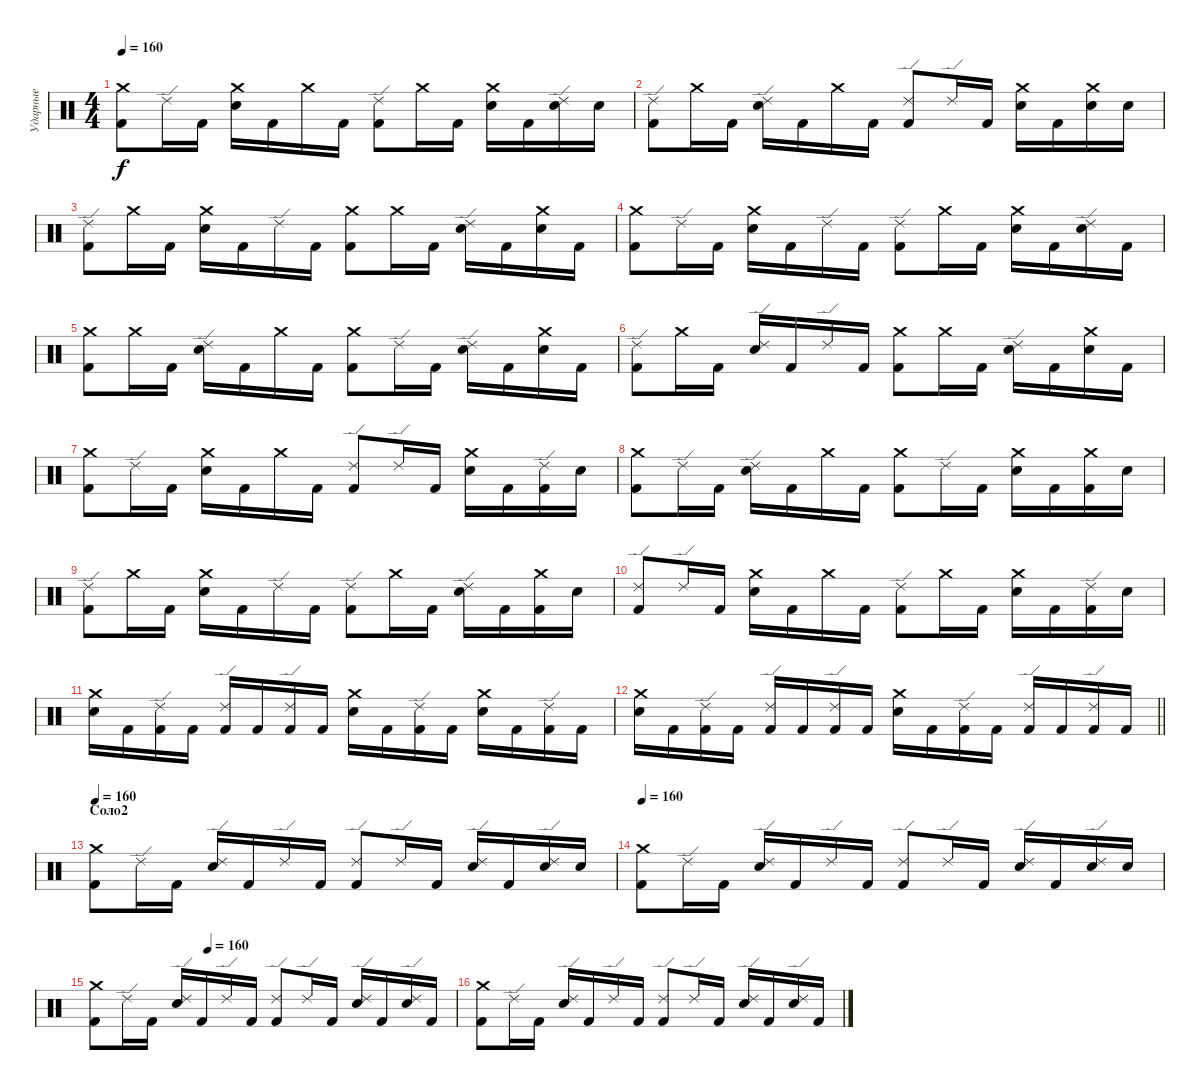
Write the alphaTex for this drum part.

\track ("Ударные" "Ударные") {instrument percussion}
\staff {score}
\articulation defaults
\ts (4 4)
\tempo 160
\clef neutral
\ks c
("Crash medium (hit)" "Kick (hit) 2").8{dy f} "Ride (edge) 2".16 "Kick (hit) 2".16 ("Crash medium (hit)" "Electric Snare (hit)").16 "Kick (hit) 2".16 "Crash medium (hit)".16 "Kick (hit) 2".16 ("Ride (edge) 2" "Kick (hit) 2").8 "Crash medium (hit)".16 "Kick (hit) 2".16 ("Crash medium (hit)" "Electric Snare (hit)").16 "Kick (hit) 2".16 ("Ride (edge) 2" "Electric Snare (hit)").16 "Electric Snare (hit)".16 |
("Ride (edge) 2" "Kick (hit) 2").8 "Crash medium (hit)".16 "Kick (hit) 2".16 ("Ride (edge) 2" "Electric Snare (hit)").16 "Kick (hit) 2".16 "Crash medium (hit)".16 "Kick (hit) 2".16 ("Ride (edge) 2" "Kick (hit) 2").8 "Ride (edge) 2".16 "Kick (hit) 2".16 ("Crash medium (hit)" "Electric Snare (hit)").16 "Kick (hit) 2".16 ("Crash medium (hit)" "Electric Snare (hit)").16 "Electric Snare (hit)".16 |
("Ride (edge) 2" "Kick (hit) 2").8 "Crash medium (hit)".16 "Kick (hit) 2".16 ("Crash medium (hit)" "Electric Snare (hit)").16 "Kick (hit) 2".16 "Ride (edge) 2".16 "Kick (hit) 2".16 ("Crash medium (hit)" "Kick (hit) 2").8 "Crash medium (hit)".16 "Kick (hit) 2".16 ("Ride (edge) 2" "Electric Snare (hit)").16 "Kick (hit) 2".16 ("Crash medium (hit)" "Electric Snare (hit)").16 "Kick (hit) 2".16 |
("Crash medium (hit)" "Kick (hit) 2").8 "Ride (edge) 2".16 "Kick (hit) 2".16 ("Crash medium (hit)" "Electric Snare (hit)").16 "Kick (hit) 2".16 "Ride (edge) 2".16 "Kick (hit) 2".16 ("Ride (edge) 2" "Kick (hit) 2").8 "Crash medium (hit)".16 "Kick (hit) 2".16 ("Crash medium (hit)" "Electric Snare (hit)").16 "Kick (hit) 2".16 ("Ride (edge) 2" "Electric Snare (hit)").16 "Kick (hit) 2".16 |
("Crash medium (hit)" "Kick (hit) 2").8 "Crash medium (hit)".16 "Kick (hit) 2".16 ("Ride (edge) 2" "Electric Snare (hit)").16 "Kick (hit) 2".16 "Crash medium (hit)".16 "Kick (hit) 2".16 ("Crash medium (hit)" "Kick (hit) 2").8 "Ride (edge) 2".16 "Kick (hit) 2".16 ("Ride (edge) 2" "Electric Snare (hit)").16 "Kick (hit) 2".16 ("Crash medium (hit)" "Electric Snare (hit)").16 "Kick (hit) 2".16 |
("Ride (edge) 2" "Kick (hit) 2").8 "Crash medium (hit)".16 "Kick (hit) 2".16 ("Ride (edge) 2" "Electric Snare (hit)").16 "Kick (hit) 2".16 "Ride (edge) 2".16 "Kick (hit) 2".16 ("Crash medium (hit)" "Kick (hit) 2").8 "Crash medium (hit)".16 "Kick (hit) 2".16 ("Ride (edge) 2" "Electric Snare (hit)").16 "Kick (hit) 2".16 ("Crash medium (hit)" "Electric Snare (hit)").16 "Kick (hit) 2".16 |
("Crash medium (hit)" "Kick (hit) 2").8 "Ride (edge) 2".16 "Kick (hit) 2".16 ("Crash medium (hit)" "Electric Snare (hit)").16 "Kick (hit) 2".16 "Crash medium (hit)".16 "Kick (hit) 2".16 ("Ride (edge) 2" "Kick (hit) 2").8 "Ride (edge) 2".16 "Kick (hit) 2".16 ("Crash medium (hit)" "Electric Snare (hit)").16 "Kick (hit) 2".16 ("Ride (edge) 2" "Kick (hit) 2").16 "Electric Snare (hit)".16 |
("Crash medium (hit)" "Kick (hit) 2").8 "Ride (edge) 2".16 "Kick (hit) 2".16 ("Ride (edge) 2" "Electric Snare (hit)").16 "Kick (hit) 2".16 "Crash medium (hit)".16 "Kick (hit) 2".16 ("Crash medium (hit)" "Kick (hit) 2").8 "Ride (edge) 2".16 "Kick (hit) 2".16 ("Crash medium (hit)" "Electric Snare (hit)").16 "Kick (hit) 2".16 ("Crash medium (hit)" "Kick (hit) 2").16 "Electric Snare (hit)".16 |
("Ride (edge) 2" "Kick (hit) 2").8 "Crash medium (hit)".16 "Kick (hit) 2".16 ("Crash medium (hit)" "Electric Snare (hit)").16 "Kick (hit) 2".16 "Ride (edge) 2".16 "Kick (hit) 2".16 ("Ride (edge) 2" "Kick (hit) 2").8 "Crash medium (hit)".16 "Kick (hit) 2".16 ("Ride (edge) 2" "Electric Snare (hit)").16 "Kick (hit) 2".16 ("Crash medium (hit)" "Kick (hit) 2").16 "Electric Snare (hit)".16 |
("Ride (edge) 2" "Kick (hit) 2").8 "Ride (edge) 2".16 "Kick (hit) 2".16 ("Crash medium (hit)" "Electric Snare (hit)").16 "Kick (hit) 2".16 "Crash medium (hit)".16 "Kick (hit) 2".16 ("Ride (edge) 2" "Kick (hit) 2").8 "Crash medium (hit)".16 "Kick (hit) 2".16 ("Crash medium (hit)" "Electric Snare (hit)").16 "Kick (hit) 2".16 ("Ride (edge) 2" "Kick (hit) 2").16 "Electric Snare (hit)".16 |
("Crash medium (hit)" "Electric Snare (hit)").16 "Kick (hit) 2".16 ("Ride (edge) 2" "Kick (hit) 2").16 "Kick (hit) 2".16 ("Ride (edge) 2" "Kick (hit) 2").16 "Kick (hit) 2".16 ("Ride (edge) 2" "Kick (hit) 2").16 "Kick (hit) 2".16 ("Crash medium (hit)" "Electric Snare (hit)").16 "Kick (hit) 2".16 ("Ride (edge) 2" "Kick (hit) 2").16 "Kick (hit) 2".16 ("Crash medium (hit)" "Electric Snare (hit)").16 "Kick (hit) 2".16 ("Ride (edge) 2" "Kick (hit) 2").16 "Kick (hit) 2".16 |
\barLineRight lightlight
("Crash medium (hit)" "Electric Snare (hit)").16 "Kick (hit) 2".16 ("Ride (edge) 2" "Kick (hit) 2").16 "Kick (hit) 2".16 ("Ride (edge) 2" "Kick (hit) 2").16 "Kick (hit) 2".16 ("Ride (edge) 2" "Kick (hit) 2").16 "Kick (hit) 2".16 ("Crash medium (hit)" "Electric Snare (hit)").16 "Kick (hit) 2".16 ("Ride (edge) 2" "Kick (hit) 2").16 "Kick (hit) 2".16 ("Ride (edge) 2" "Kick (hit) 2").16 "Kick (hit) 2".16 ("Ride (edge) 2" "Kick (hit) 2").16 "Kick (hit) 2".16 |
\section ("" "Соло2")
\tempo 160
("Crash medium (hit)" "Kick (hit) 2").8 "Ride (edge) 2".16 "Kick (hit) 2".16 ("Ride (edge) 2" "Electric Snare (hit)").16 "Kick (hit) 2".16 "Ride (edge) 2".16 "Kick (hit) 2".16 ("Ride (edge) 2" "Kick (hit) 2").8 "Ride (edge) 2".16 "Kick (hit) 2".16 ("Ride (edge) 2" "Electric Snare (hit)").16 "Kick (hit) 2".16 ("Ride (edge) 2" "Electric Snare (hit)").16 "Electric Snare (hit)".16 |
\tempo 160
("Crash medium (hit)" "Kick (hit) 2").8 "Ride (edge) 2".16 "Kick (hit) 2".16 ("Ride (edge) 2" "Electric Snare (hit)").16 "Kick (hit) 2".16 "Ride (edge) 2".16 "Kick (hit) 2".16 ("Ride (edge) 2" "Kick (hit) 2").8 "Ride (edge) 2".16 "Kick (hit) 2".16 ("Ride (edge) 2" "Electric Snare (hit)").16 "Kick (hit) 2".16 ("Ride (edge) 2" "Electric Snare (hit)").16 "Electric Snare (hit)".16 |
\tempo (160 0.3125)
("Crash medium (hit)" "Kick (hit) 2").8 "Ride (edge) 2".16 "Kick (hit) 2".16 ("Ride (edge) 2" "Electric Snare (hit)").16 "Kick (hit) 2".16 "Ride (edge) 2".16 "Kick (hit) 2".16 ("Ride (edge) 2" "Kick (hit) 2").8 "Ride (edge) 2".16 "Kick (hit) 2".16 ("Ride (edge) 2" "Electric Snare (hit)").16 "Kick (hit) 2".16 ("Ride (edge) 2" "Electric Snare (hit)").16 "Kick (hit) 2".16 |
("Crash medium (hit)" "Kick (hit) 2").8 "Ride (edge) 2".16 "Kick (hit) 2".16 ("Ride (edge) 2" "Electric Snare (hit)").16 "Kick (hit) 2".16 "Ride (edge) 2".16 "Kick (hit) 2".16 ("Ride (edge) 2" "Kick (hit) 2").8 "Ride (edge) 2".16 "Kick (hit) 2".16 ("Ride (edge) 2" "Electric Snare (hit)").16 "Kick (hit) 2".16 ("Ride (edge) 2" "Electric Snare (hit)").16 "Kick (hit) 2".16
